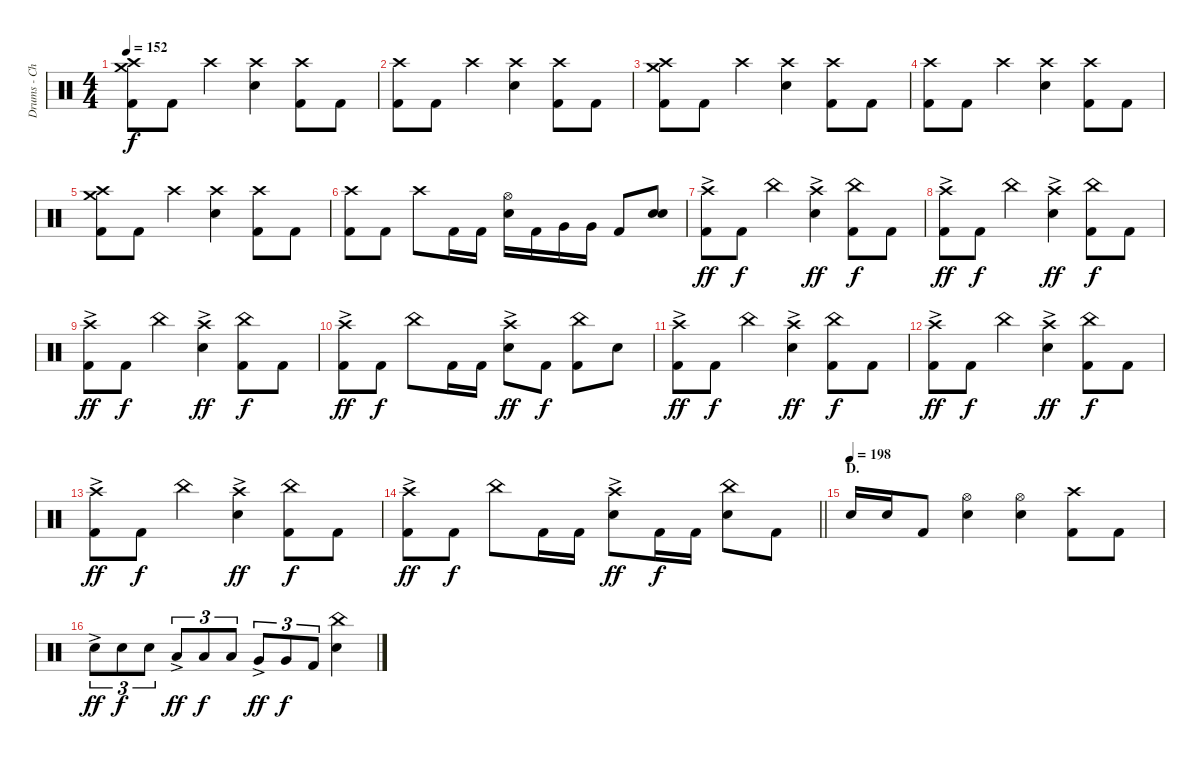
\track ("Drums - Christopher Hornbrook" "Drums - Ch") {instrument percussion}
\staff {score}
\articulation defaults
\ts (4 4)
\tempo 152
\clef neutral
\ks c
("Crash medium (hit)" "Crash high (hit)" "Kick (hit) 2").8{dy f} "Kick (hit) 2".8 "Crash high (hit)".4 ("Crash high (hit)" "Electric Snare (hit)").4 ("Crash high (hit)" "Kick (hit) 2").8 "Kick (hit) 2".8 |
("Crash high (hit)" "Kick (hit) 2").8 "Kick (hit) 2".8 "Crash high (hit)".4 ("Crash high (hit)" "Electric Snare (hit)").4 ("Crash high (hit)" "Kick (hit) 2").8 "Kick (hit) 2".8 |
("Crash medium (hit)" "Crash high (hit)" "Kick (hit) 2").8 "Kick (hit) 2".8 "Crash high (hit)".4 ("Crash high (hit)" "Electric Snare (hit)").4 ("Crash high (hit)" "Kick (hit) 2").8 "Kick (hit) 2".8 |
("Crash high (hit)" "Kick (hit) 2").8 "Kick (hit) 2".8 "Crash high (hit)".4 ("Crash high (hit)" "Electric Snare (hit)").4 ("Crash high (hit)" "Kick (hit) 2").8 "Kick (hit) 2".8 |
("Crash medium (hit)" "Crash high (hit)" "Kick (hit) 2").8 "Kick (hit) 2".8 "Crash high (hit)".4 ("Crash high (hit)" "Electric Snare (hit)").4 ("Crash high (hit)" "Kick (hit) 2").8 "Kick (hit) 2".8 |
("Crash high (hit)" "Kick (hit) 2").8 "Kick (hit) 2".8 "Crash high (hit)".8 "Kick (hit) 2".16 "Kick (hit) 2".16 ("Hi-Hat (open)" "Electric Snare (hit)").16 "Kick (hit) 2".16 "Very Low Tom (hit)".16 "Very Low Tom (hit)".16 "Kick (hit) 2".8 ("Electric Snare (hit)" "Electric Snare (hit)").8{bu 120} |
("Crash high (hit)"{ac} "Kick (hit) 2").8{dy ff} "Kick (hit) 2".8{dy f} "China (hit)".4 ("Crash high (hit)"{ac} "Electric Snare (hit)").4{dy ff} ("China (hit)" "Kick (hit) 2").8{dy f} "Kick (hit) 2".8 |
("Crash high (hit)"{ac} "Kick (hit) 2").8{dy ff} "Kick (hit) 2".8{dy f} "China (hit)".4 ("Crash high (hit)"{ac} "Electric Snare (hit)").4{dy ff} ("China (hit)" "Kick (hit) 2").8{dy f} "Kick (hit) 2".8 |
("Crash high (hit)"{ac} "Kick (hit) 2").8{dy ff} "Kick (hit) 2".8{dy f} "China (hit)".4 ("Crash high (hit)"{ac} "Electric Snare (hit)").4{dy ff} ("China (hit)" "Kick (hit) 2").8{dy f} "Kick (hit) 2".8 |
("Crash high (hit)"{ac} "Kick (hit) 2").8{dy ff} "Kick (hit) 2".8{dy f} "China (hit)".8 "Kick (hit) 2".16 "Kick (hit) 2".16 ("Crash high (hit)"{ac} "Electric Snare (hit)").8{dy ff} "Kick (hit) 2".8{dy f} ("China (hit)" "Kick (hit) 2").8 "Electric Snare (hit)".8 |
("Crash high (hit)"{ac} "Kick (hit) 2").8{dy ff} "Kick (hit) 2".8{dy f} "China (hit)".4 ("Crash high (hit)"{ac} "Electric Snare (hit)").4{dy ff} ("China (hit)" "Kick (hit) 2").8{dy f} "Kick (hit) 2".8 |
("Crash high (hit)"{ac} "Kick (hit) 2").8{dy ff} "Kick (hit) 2".8{dy f} "China (hit)".4 ("Crash high (hit)"{ac} "Electric Snare (hit)").4{dy ff} ("China (hit)" "Kick (hit) 2").8{dy f} "Kick (hit) 2".8 |
("Crash high (hit)"{ac} "Kick (hit) 2").8{dy ff} "Kick (hit) 2".8{dy f} "China (hit)".4 ("Crash high (hit)"{ac} "Electric Snare (hit)").4{dy ff} ("China (hit)" "Kick (hit) 2").8{dy f} "Kick (hit) 2".8 |
\barLineRight lightlight
("Crash high (hit)"{ac} "Kick (hit) 2").8{dy ff} "Kick (hit) 2".8{dy f} "China (hit)".8 "Kick (hit) 2".16 "Kick (hit) 2".16 ("Crash high (hit)"{ac} "Electric Snare (hit)").8{dy ff} "Kick (hit) 2".16{dy f} "Kick (hit) 2".16 ("China (hit)" "Electric Snare (hit)").8 "Kick (hit) 2".8 |
\section ("" "D.")
\tempo (198)
"Electric Snare (hit)".16 "Electric Snare (hit)".16 "Kick (hit) 2".8 ("Hi-Hat (open)" "Electric Snare (hit)").4 ("Hi-Hat (open)" "Electric Snare (hit)").4 ("Crash high (hit)" "Kick (hit) 2").8 "Kick (hit) 2".8 |
"Electric Snare (hit)"{ac}.8{tu (3 2) dy ff} "Electric Snare (hit)".8{tu (3 2) dy f} "Electric Snare (hit)".8{tu (3 2)} "Low Tom (hit)"{ac}.8{tu (3 2) dy ff} "Low Tom (hit)".8{tu (3 2) dy f} "Low Tom (hit)".8{tu (3 2)} "Very Low Tom (hit)"{ac}.8{tu (3 2) dy ff} "Very Low Tom (hit)".8{tu (3 2) dy f} "Kick (hit) 2".8{tu (3 2)} ("China (hit)" "Electric Snare (hit)").4
